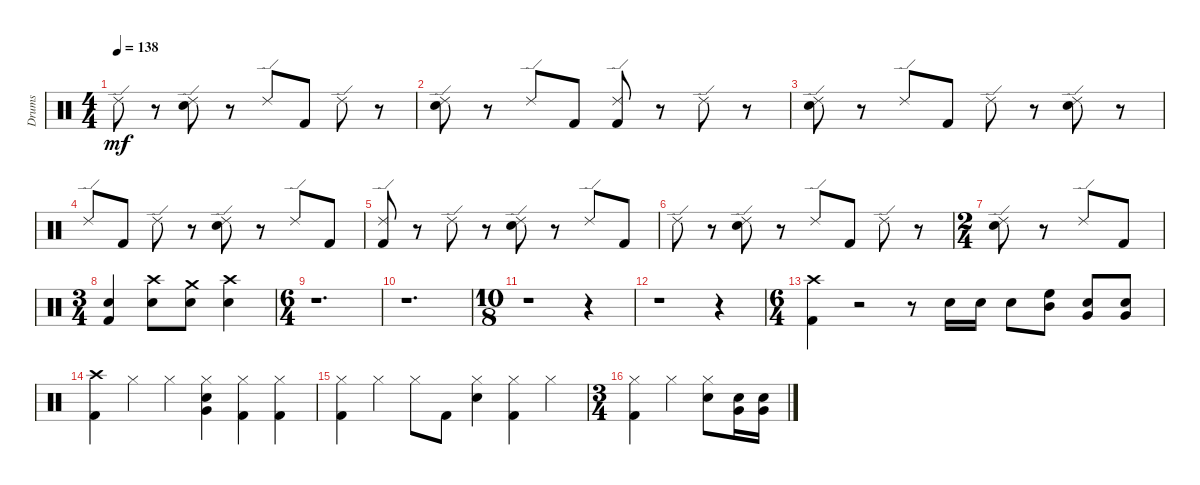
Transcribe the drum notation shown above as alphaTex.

\track ("Drums" "Drums") {instrument percussion}
\staff {score}
\articulation defaults
\ts (4 4)
\tempo 138
\clef neutral
\ks c "Ride (edge) 2".8{dy mf}
r.8 ("Electric Snare (hit)" "Ride (edge) 2").8 r.8 "Ride (edge) 2".8 "Kick (hit) 2".8 "Ride (edge) 2".8 r.8 |
("Electric Snare (hit)" "Ride (edge) 2").8 r.8 "Ride (edge) 2".8 "Kick (hit) 2".8 ("Kick (hit) 2" "Ride (edge) 2").8 r.8 "Ride (edge) 2".8 r.8 |
("Electric Snare (hit)" "Ride (edge) 2").8 r.8 "Ride (edge) 2".8 "Kick (hit) 2".8 "Ride (edge) 2".8 r.8 ("Electric Snare (hit)" "Ride (edge) 2").8 r.8 |
"Ride (edge) 2".8 "Kick (hit) 2".8 "Ride (edge) 2".8 r.8 ("Electric Snare (hit)" "Ride (edge) 2").8 r.8 "Ride (edge) 2".8 "Kick (hit) 2".8 |
("Kick (hit) 2" "Ride (edge) 2").8 r.8 "Ride (edge) 2".8 r.8 ("Electric Snare (hit)" "Ride (edge) 2").8 r.8 "Ride (edge) 2".8 "Kick (hit) 2".8 |
"Ride (edge) 2".8 r.8 ("Electric Snare (hit)" "Ride (edge) 2").8 r.8 "Ride (edge) 2".8 "Kick (hit) 2".8 "Ride (edge) 2".8 r.8 |
\ts (2 4)
("Electric Snare (hit)" "Ride (edge) 2").8 r.8 "Ride (edge) 2".8 "Kick (hit) 2".8 |
\ts (3 4)
("Kick (hit) 2" "Snare (hit) 2").4 ("Snare (hit) 2" "Crash high (hit)").8 ("Snare (hit) 2" "Crash medium (hit)").8 ("Snare (hit) 2" "Crash high (hit)").4 |
\ts (6 4)
r.1{d} |
r.1{d} |
\ts (10 8)
r.1 r.4 |
r.1 r.4 |
\ts (6 4)
("Kick (hit) 2" "Crash high (hit)").4 r.2 r.8 "Snare (hit) 2".16 "Snare (hit) 2".16 "Snare (hit) 2".8 ("Mid Tom (hit)" "High Floor Tom (hit)").8 ("Snare (hit) 2" "Very Low Tom (hit)").8 ("Snare (hit) 2" "Very Low Tom (hit)").8 |
("Kick (hit) 2" "Crash high (hit)").4 "Hi-Hat (closed)".4 "Hi-Hat (closed)".4 ("Snare (hit) 2" "Very Low Tom (hit)" "Hi-Hat (closed)").4 ("Kick (hit) 2" "Hi-Hat (closed)").4 ("Kick (hit) 2" "Hi-Hat (closed)").4 |
("Kick (hit) 2" "Hi-Hat (closed)").4 "Hi-Hat (closed)".4 "Hi-Hat (closed)".8 "Kick (hit) 2".8 ("Snare (hit) 2" "Hi-Hat (closed)").4 ("Kick (hit) 2" "Hi-Hat (closed)").4 "Hi-Hat (closed)".4 |
\ts (3 4)
("Kick (hit) 2" "Hi-Hat (closed)").4 "Hi-Hat (closed)".4 ("Snare (hit) 2" "Hi-Hat (closed)").8 ("Snare (hit) 2" "Very Low Tom (hit)").16 ("Snare (hit) 2" "Very Low Tom (hit)").16
